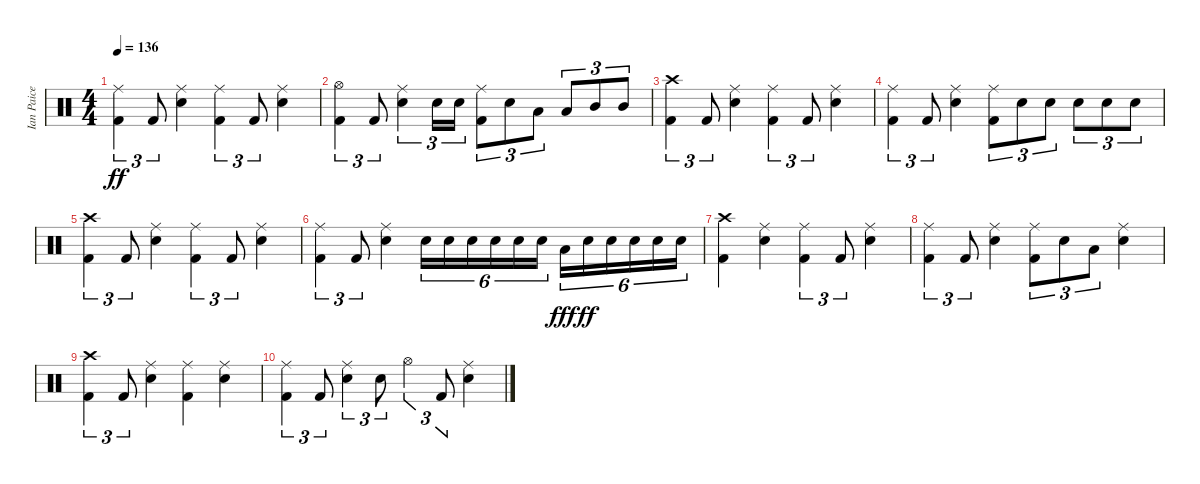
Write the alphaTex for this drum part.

\track ("Ian Paice" "Ian Paice") {instrument percussion}
\staff {score}
\articulation defaults
\ts (4 4)
\tempo 136
\clef neutral
\ks c
("Ride (middle)" "Kick (hit) 2").4{tu (3 2) dy ff} "Kick (hit) 2".8{tu (3 2)} ("Ride (middle)" "Electric Snare (hit)").4 ("Ride (middle)" "Kick (hit) 2").4{tu (3 2)} "Kick (hit) 2".8{tu (3 2)} ("Ride (middle)" "Electric Snare (hit)").4 |
("Hi-Hat (open)" "Kick (hit) 2").4{tu (3 2)} "Kick (hit) 2".8{tu (3 2)} ("Ride (middle)" "Electric Snare (hit)").4{tu (3 2)} "Electric Snare (hit)".16{tu (3 2)} "Electric Snare (hit)".16{tu (3 2)} ("Ride (middle)" "Kick (hit) 2").8{tu (3 2)} "Electric Snare (hit)".8{tu (3 2)} "Low Tom (hit)".8{tu (3 2)} "Low Tom (hit)".8{tu (3 2)} "Mid Tom (hit)".8{tu (3 2)} "Mid Tom (hit)".8{tu (3 2)} |
("Crash high (hit)" "Kick (hit) 2").4{tu (3 2)} "Kick (hit) 2".8{tu (3 2)} ("Ride (middle)" "Electric Snare (hit)").4 ("Ride (middle)" "Kick (hit) 2").4{tu (3 2)} "Kick (hit) 2".8{tu (3 2)} ("Ride (middle)" "Electric Snare (hit)").4 |
("Ride (middle)" "Kick (hit) 2").4{tu (3 2)} "Kick (hit) 2".8{tu (3 2)} ("Ride (middle)" "Electric Snare (hit)").4 ("Ride (middle)" "Kick (hit) 2").8{tu (3 2)} "Electric Snare (hit)".8{tu (3 2)} "Electric Snare (hit)".8{tu (3 2)} "Electric Snare (hit)".8{tu (3 2)} "Electric Snare (hit)".8{tu (3 2)} "Electric Snare (hit)".8{tu (3 2)} |
("Crash high (hit)" "Kick (hit) 2").4{tu (3 2)} "Kick (hit) 2".8{tu (3 2)} ("Ride (middle)" "Electric Snare (hit)").4 ("Ride (middle)" "Kick (hit) 2").4{tu (3 2)} "Kick (hit) 2".8{tu (3 2)} ("Ride (middle)" "Electric Snare (hit)").4 |
("Ride (middle)" "Kick (hit) 2").4{tu (3 2) volume 9} "Kick (hit) 2".8{tu (3 2)} ("Ride (middle)" "Electric Snare (hit)").4 "Electric Snare (hit)".16{tu (6 4)} "Electric Snare (hit)".16{tu (6 4)} "Electric Snare (hit)".16{tu (6 4)} "Electric Snare (hit)".16{tu (6 4)} "Electric Snare (hit)".16{tu (6 4)} "Electric Snare (hit)".16{tu (6 4)} "Low Tom (hit)".16{tu (6 4) dy fff} "Electric Snare (hit)".16{tu (6 4) dy ff} "Electric Snare (hit)".16{tu (6 4)} "Electric Snare (hit)".16{tu (6 4)} "Electric Snare (hit)".16{tu (6 4)} "Electric Snare (hit)".16{tu (6 4)} |
("Crash high (hit)" "Kick (hit) 2").4 ("Ride (middle)" "Electric Snare (hit)").4 ("Ride (middle)" "Kick (hit) 2").4{tu (3 2)} "Kick (hit) 2".8{tu (3 2)} ("Ride (middle)" "Electric Snare (hit)").4 |
("Ride (middle)" "Kick (hit) 2").4{tu (3 2) volume 6} "Kick (hit) 2".8{tu (3 2)} ("Ride (middle)" "Electric Snare (hit)").4 ("Ride (middle)" "Kick (hit) 2").8{tu (3 2)} "Electric Snare (hit)".8{tu (3 2)} "Low Tom (hit)".8{tu (3 2)} ("Ride (middle)" "Electric Snare (hit)").4 |
("Crash high (hit)" "Kick (hit) 2").4{tu (3 2)} "Kick (hit) 2".8{tu (3 2)} ("Ride (middle)" "Electric Snare (hit)").4 ("Ride (middle)" "Kick (hit) 2").4 ("Ride (middle)" "Electric Snare (hit)").4 |
("Ride (middle)" "Kick (hit) 2").4{tu (3 2) volume 0} "Kick (hit) 2".8{tu (3 2)} ("Ride (middle)" "Electric Snare (hit)").4{tu (3 2)} "Electric Snare (hit)".8{tu (3 2)} "Hi-Hat (open)".4{tu (3 2)} "Kick (hit) 2".8{tu (3 2)} ("Ride (middle)" "Electric Snare (hit)").4
